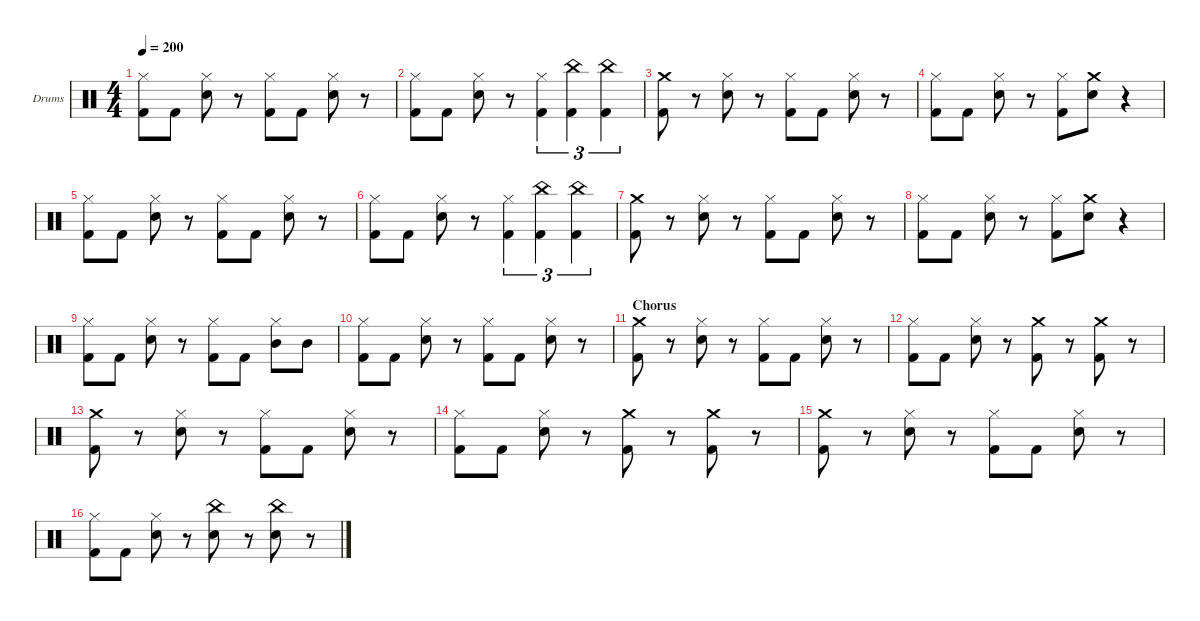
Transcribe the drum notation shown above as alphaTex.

\hideDynamics
\bracketExtendMode nobrackets
\firstSystemTrackNameOrientation horizontal
\otherSystemsTrackNameOrientation horizontal
\track ("Drumkit" "Drums") {instrument percussion}
\staff {score}
\articulation defaults
\ts (4 4)
\tempo 200
\clef neutral
\ks c
("Kick (hit) 2" "Hi-Hat (closed)").8{dy f} "Kick (hit) 2".8 ("Snare (hit) 2" "Hi-Hat (closed)").8 r.8 ("Kick (hit) 2" "Hi-Hat (closed)").8 "Kick (hit) 2".8 ("Snare (hit) 2" "Hi-Hat (closed)").8 r.8 |
("Kick (hit) 2" "Hi-Hat (closed)").8 "Kick (hit) 2".8 ("Snare (hit) 2" "Hi-Hat (closed)").8 r.8 ("Hi-Hat (closed)" "Kick (hit) 2").4{tu (3 2)} ("China (hit)" "Kick (hit) 2").4{tu (3 2)} ("China (hit)" "Kick (hit) 2").4{tu (3 2)} |
("Kick (hit) 2" "Crash medium (hit)").8 r.8 ("Hi-Hat (closed)" "Snare (hit) 2").8 r.8 ("Hi-Hat (closed)" "Kick (hit) 2").8 "Kick (hit) 2".8 ("Hi-Hat (closed)" "Snare (hit) 2").8 r.8 |
("Kick (hit) 2" "Hi-Hat (closed)").8 "Kick (hit) 2".8 ("Snare (hit) 2" "Hi-Hat (closed)").8 r.8 ("Hi-Hat (closed)" "Kick (hit) 2").8 ("Crash medium (hit)" "Snare (hit) 2").8 r.4 |
("Kick (hit) 2" "Hi-Hat (closed)").8 "Kick (hit) 2".8 ("Snare (hit) 2" "Hi-Hat (closed)").8 r.8 ("Kick (hit) 2" "Hi-Hat (closed)").8 "Kick (hit) 2".8 ("Snare (hit) 2" "Hi-Hat (closed)").8 r.8 |
("Kick (hit) 2" "Hi-Hat (closed)").8 "Kick (hit) 2".8 ("Snare (hit) 2" "Hi-Hat (closed)").8 r.8 ("Hi-Hat (closed)" "Kick (hit) 2").4{tu (3 2)} ("China (hit)" "Kick (hit) 2").4{tu (3 2)} ("China (hit)" "Kick (hit) 2").4{tu (3 2)} |
("Kick (hit) 2" "Crash medium (hit)").8 r.8 ("Hi-Hat (closed)" "Snare (hit) 2").8 r.8 ("Hi-Hat (closed)" "Kick (hit) 2").8 "Kick (hit) 2".8 ("Hi-Hat (closed)" "Snare (hit) 2").8 r.8 |
("Kick (hit) 2" "Hi-Hat (closed)").8 "Kick (hit) 2".8 ("Snare (hit) 2" "Hi-Hat (closed)").8 r.8 ("Hi-Hat (closed)" "Kick (hit) 2").8 ("Crash medium (hit)" "Snare (hit) 2").8 r.4 |
("Hi-Hat (closed)" "Kick (hit) 2").8 "Kick (hit) 2".8 ("Snare (hit) 2" "Hi-Hat (closed)").8 r.8 ("Hi-Hat (closed)" "Kick (hit) 2").8 "Kick (hit) 2".8 ("Mid Tom (hit)" "Hi-Hat (closed)").8 "Mid Tom (hit)".8 |
("Hi-Hat (closed)" "Kick (hit) 2").8 "Kick (hit) 2".8 ("Hi-Hat (closed)" "Snare (hit) 2").8 r.8 ("Hi-Hat (closed)" "Kick (hit) 2").8 "Kick (hit) 2".8 ("Hi-Hat (closed)" "Snare (hit) 2").8 r.8 |
\section ("" "Chorus")
("Kick (hit) 2" "Crash medium (hit)").8 r.8 ("Hi-Hat (closed)" "Snare (hit) 2").8 r.8 ("Hi-Hat (closed)" "Kick (hit) 2").8 "Kick (hit) 2".8 ("Hi-Hat (closed)" "Snare (hit) 2").8 r.8 |
("Hi-Hat (closed)" "Kick (hit) 2").8 "Kick (hit) 2".8 ("Snare (hit) 2" "Hi-Hat (closed)").8 r.8 ("Crash medium (hit)" "Kick (hit) 2").8 r.8 ("Crash medium (hit)" "Kick (hit) 2").8 r.8 |
("Kick (hit) 2" "Crash medium (hit)").8 r.8 ("Hi-Hat (closed)" "Snare (hit) 2").8 r.8 ("Kick (hit) 2" "Hi-Hat (closed)").8 "Kick (hit) 2".8 ("Snare (hit) 2" "Hi-Hat (closed)").8 r.8 |
("Hi-Hat (closed)" "Kick (hit) 2").8 "Kick (hit) 2".8 ("Snare (hit) 2" "Hi-Hat (closed)").8 r.8 ("Crash medium (hit)" "Kick (hit) 2").8 r.8 ("Crash medium (hit)" "Kick (hit) 2").8 r.8 |
("Kick (hit) 2" "Crash medium (hit)").8 r.8 ("Hi-Hat (closed)" "Snare (hit) 2").8 r.8 ("Kick (hit) 2" "Hi-Hat (closed)").8 "Kick (hit) 2".8 ("Snare (hit) 2" "Hi-Hat (closed)").8 r.8 |
("Kick (hit) 2" "Hi-Hat (closed)").8 "Kick (hit) 2".8 ("Snare (hit) 2" "Hi-Hat (closed)").8 r.8 ("China (hit)" "Snare (hit) 2").8 r.8 ("China (hit)" "Snare (hit) 2").8 r.8
